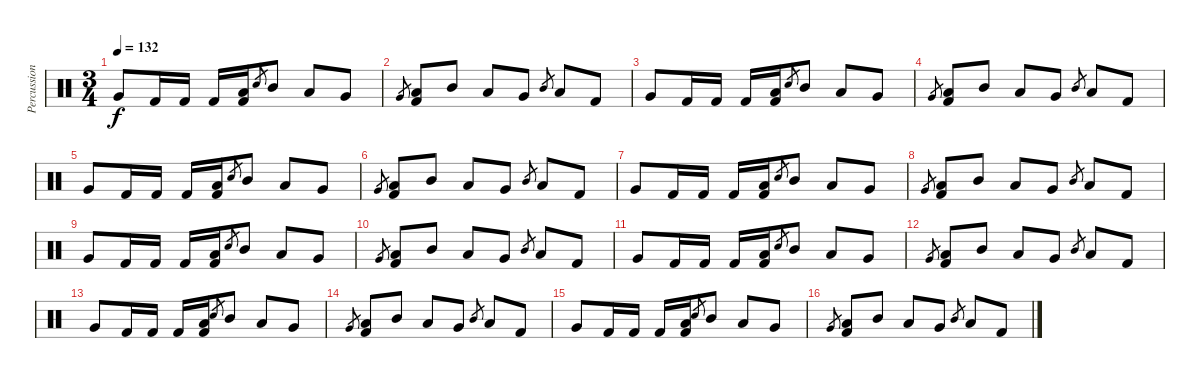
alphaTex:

\track ("Percussion" "Percussion") {instrument percussion}
\staff {score}
\articulation defaults
\ts (3 4)
\tempo 132
\clef neutral
\ks c "Very Low Tom (hit)".8{dy f} "Kick (hit) 2".16 "Kick (hit) 2".16 "Kick (hit) 2".16
("Low Tom (hit)" "Kick (hit) 2").16 "Electric Snare (hit)".8{gr} "Mid Tom (hit)".8 "Low Tom (hit)".8 "Very Low Tom (hit)".8 |
"Very Low Tom (hit)".8{gr} ("Low Floor Tom (hit)" "Kick (hit) 2").8 "Mid Tom (hit)".8 "Low Tom (hit)".8 "Very Low Tom (hit)".8 "Mid Tom (hit)".8{gr} "Low Tom (hit)".8 "Kick (hit) 2".8 |
"Very Low Tom (hit)".8 "Kick (hit) 2".16 "Kick (hit) 2".16 "Kick (hit) 2".16 ("Low Tom (hit)" "Kick (hit) 2").16 "Electric Snare (hit)".8{gr} "Mid Tom (hit)".8 "Low Tom (hit)".8 "Very Low Tom (hit)".8 |
"Very Low Tom (hit)".8{gr} ("Low Floor Tom (hit)" "Kick (hit) 2").8 "Mid Tom (hit)".8 "Low Tom (hit)".8 "Very Low Tom (hit)".8 "Mid Tom (hit)".8{gr} "Low Tom (hit)".8 "Kick (hit) 2".8 |
"Very Low Tom (hit)".8 "Kick (hit) 2".16 "Kick (hit) 2".16 "Kick (hit) 2".16 ("Low Tom (hit)" "Kick (hit) 2").16 "Electric Snare (hit)".8{gr} "Mid Tom (hit)".8 "Low Tom (hit)".8 "Very Low Tom (hit)".8 |
"Very Low Tom (hit)".8{gr} ("Low Floor Tom (hit)" "Kick (hit) 2").8 "Mid Tom (hit)".8 "Low Tom (hit)".8 "Very Low Tom (hit)".8 "Mid Tom (hit)".8{gr} "Low Tom (hit)".8 "Kick (hit) 2".8 |
"Very Low Tom (hit)".8 "Kick (hit) 2".16 "Kick (hit) 2".16 "Kick (hit) 2".16 ("Low Tom (hit)" "Kick (hit) 2").16 "Electric Snare (hit)".8{gr} "Mid Tom (hit)".8 "Low Tom (hit)".8 "Very Low Tom (hit)".8 |
"Very Low Tom (hit)".8{gr} ("Low Floor Tom (hit)" "Kick (hit) 2").8 "Mid Tom (hit)".8 "Low Tom (hit)".8 "Very Low Tom (hit)".8 "Mid Tom (hit)".8{gr} "Low Tom (hit)".8 "Kick (hit) 2".8 |
"Very Low Tom (hit)".8 "Kick (hit) 2".16 "Kick (hit) 2".16 "Kick (hit) 2".16 ("Low Tom (hit)" "Kick (hit) 2").16 "Electric Snare (hit)".8{gr} "Mid Tom (hit)".8 "Low Tom (hit)".8 "Very Low Tom (hit)".8 |
"Very Low Tom (hit)".8{gr} ("Low Floor Tom (hit)" "Kick (hit) 2").8 "Mid Tom (hit)".8 "Low Tom (hit)".8 "Very Low Tom (hit)".8 "Mid Tom (hit)".8{gr} "Low Tom (hit)".8 "Kick (hit) 2".8 |
"Very Low Tom (hit)".8 "Kick (hit) 2".16 "Kick (hit) 2".16 "Kick (hit) 2".16 ("Low Tom (hit)" "Kick (hit) 2").16 "Electric Snare (hit)".8{gr} "Mid Tom (hit)".8 "Low Tom (hit)".8 "Very Low Tom (hit)".8 |
"Very Low Tom (hit)".8{gr} ("Low Floor Tom (hit)" "Kick (hit) 2").8 "Mid Tom (hit)".8 "Low Tom (hit)".8 "Very Low Tom (hit)".8 "Mid Tom (hit)".8{gr} "Low Tom (hit)".8 "Kick (hit) 2".8 |
"Very Low Tom (hit)".8 "Kick (hit) 2".16 "Kick (hit) 2".16 "Kick (hit) 2".16 ("Low Tom (hit)" "Kick (hit) 2").16 "Electric Snare (hit)".8{gr} "Mid Tom (hit)".8 "Low Tom (hit)".8 "Very Low Tom (hit)".8 |
"Very Low Tom (hit)".8{gr} ("Low Floor Tom (hit)" "Kick (hit) 2").8 "Mid Tom (hit)".8 "Low Tom (hit)".8 "Very Low Tom (hit)".8 "Mid Tom (hit)".8{gr} "Low Tom (hit)".8 "Kick (hit) 2".8 |
"Very Low Tom (hit)".8 "Kick (hit) 2".16 "Kick (hit) 2".16 "Kick (hit) 2".16 ("Low Tom (hit)" "Kick (hit) 2").16 "Electric Snare (hit)".8{gr} "Mid Tom (hit)".8 "Low Tom (hit)".8 "Very Low Tom (hit)".8 |
"Very Low Tom (hit)".8{gr} ("Low Floor Tom (hit)" "Kick (hit) 2").8 "Mid Tom (hit)".8 "Low Tom (hit)".8 "Very Low Tom (hit)".8 "Mid Tom (hit)".8{gr} "Low Tom (hit)".8 "Kick (hit) 2".8
